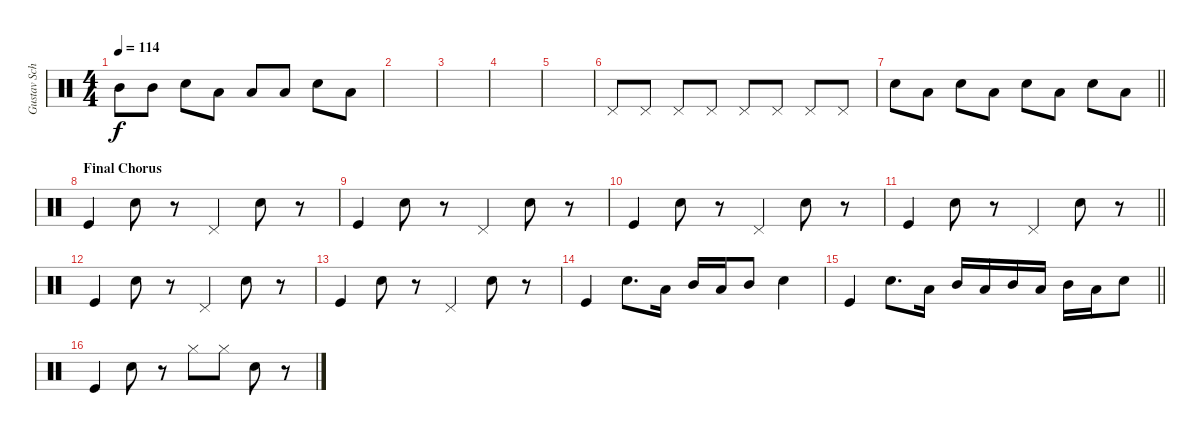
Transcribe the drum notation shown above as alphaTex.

\track ("Gustav Schäfer" "Gustav Sch") {instrument percussion}
\staff {score}
\articulation defaults
\ts (4 4)
\tempo 114
\clef neutral
\ks c "Mid Tom (hit)".8{dy f} "Mid Tom (hit)".8 "Electric Snare (hit)".8 "Low Tom (hit)".8 "Low Tom (hit)".8 "Low Tom (hit)".8 "Electric Snare (hit)".8 "Low Tom (hit)".8
|
|
|
|
|
"Pedal Hi-Hat (hit)".8 "Pedal Hi-Hat (hit)".8 "Pedal Hi-Hat (hit)".8 "Pedal Hi-Hat (hit)".8 "Pedal Hi-Hat (hit)".8 "Pedal Hi-Hat (hit)".8 "Pedal Hi-Hat (hit)".8 "Pedal Hi-Hat (hit)".8 |
\barLineRight lightlight "Electric Snare (hit)".8 "Low Tom (hit)".8 "Electric Snare (hit)".8 "Low Tom (hit)".8 "Electric Snare (hit)".8 "Low Tom (hit)".8 "Electric Snare (hit)".8 "Low Tom (hit)".8
|
\section ("" "Final Chorus")
"Kick (hit)".4 "Electric Snare (hit)".8 r.8 "Pedal Hi-Hat (hit)".4 "Electric Snare (hit)".8 r.8 |
"Kick (hit)".4 "Electric Snare (hit)".8 r.8 "Pedal Hi-Hat (hit)".4 "Electric Snare (hit)".8 r.8 |
"Kick (hit)".4 "Electric Snare (hit)".8 r.8 "Pedal Hi-Hat (hit)".4 "Electric Snare (hit)".8 r.8 |
\barLineRight lightlight "Kick (hit)".4 "Electric Snare (hit)".8
r.8 "Pedal Hi-Hat (hit)".4 "Electric Snare (hit)".8 r.8 |
"Kick (hit)".4 "Electric Snare (hit)".8 r.8 "Pedal Hi-Hat (hit)".4 "Electric Snare (hit)".8 r.8 |
"Kick (hit)".4 "Electric Snare (hit)".8 r.8 "Pedal Hi-Hat (hit)".4 "Electric Snare (hit)".8 r.8 |
"Kick (hit)".4 "Electric Snare (hit)".8{d} "Low Tom (hit)".16 "Mid Tom (hit)".16 "Low Tom (hit)".16 "Mid Tom (hit)".8 "Electric Snare (hit)".4 |
\barLineRight lightlight "Kick (hit)".4 "Electric Snare (hit)".8{d} "Low Tom (hit)".16 "Mid Tom (hit)".16 "Low Tom (hit)".16 "Mid Tom (hit)".16 "Low Tom (hit)".16 "Mid Tom (hit)".16 "Low Tom (hit)".16 "Electric Snare (hit)".8
|
"Kick (hit)".4 "Electric Snare (hit)".8 r.8 "Hi-Hat (closed)".8 "Hi-Hat (closed)".8 "Electric Snare (hit)".8 r.8
